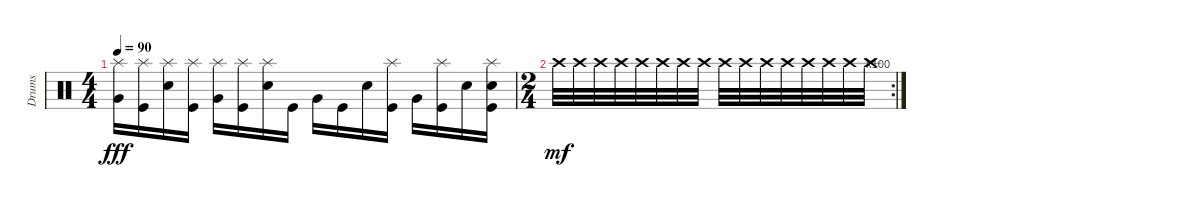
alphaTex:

\track ("Drums" "Drums") {instrument percussion}
\staff {score}
\articulation defaults
\ts (4 4)
\tempo 90
\clef neutral
\ks c
("Very Low Tom (hit)" "Splash (hit)").16{dy fff} ("Kick (hit)" "Splash (hit)").16 ("Electric Snare (hit)" "Splash (hit)").16 ("Kick (hit)" "Splash (hit)").16 ("Very Low Tom (hit)" "Splash (hit)").16 ("Kick (hit)" "Splash (hit)").16 ("Electric Snare (hit)" "Splash (hit)").16 "Kick (hit)".16 "Very Low Tom (hit)".16 "Kick (hit)".16 "Electric Snare (hit)".16 ("Kick (hit)" "Splash (hit)").16 "Very Low Tom (hit)".16 ("Kick (hit)" "Splash (hit)").16 "Electric Snare (hit)".16 ("Kick (hit)" "Electric Snare (hit)" "Splash (hit)").16 |
\rc 100
\ts (2 4)
"Crash high (hit)".32{dy mf} "Crash high (hit)".32 "Crash high (hit)".32 "Crash high (hit)".32 "Crash high (hit)".32 "Crash high (hit)".32 "Crash high (hit)".32 "Crash high (hit)".32 "Crash high (hit)".32 "Crash high (hit)".32 "Crash high (hit)".32 "Crash high (hit)".32 "Crash high (hit)".32 "Crash high (hit)".32 "Crash high (hit)".32 "Crash high (hit)".32
